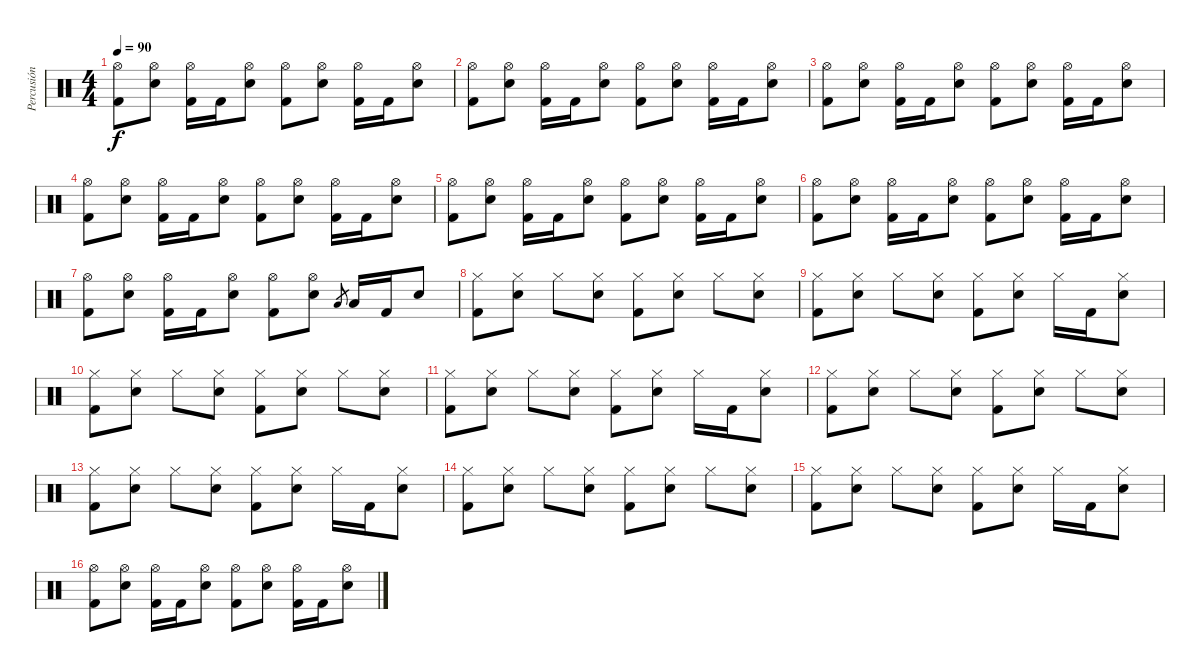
\track ("Percusión" "Percusión") {instrument percussion}
\staff {score}
\articulation defaults
\ts (4 4)
\tempo 90
\clef neutral
\ks c
("Hi-Hat (open)" "Kick (hit) 2").8{dy f} ("Hi-Hat (open)" "Snare (hit) 2").8 ("Hi-Hat (open)" "Kick (hit) 2").16 "Kick (hit) 2".16 ("Hi-Hat (open)" "Snare (hit) 2").8 ("Hi-Hat (open)" "Kick (hit) 2").8 ("Hi-Hat (open)" "Snare (hit) 2").8 ("Hi-Hat (open)" "Kick (hit) 2").16 "Kick (hit) 2".16 ("Hi-Hat (open)" "Snare (hit) 2").8 |
("Hi-Hat (open)" "Kick (hit) 2").8 ("Hi-Hat (open)" "Snare (hit) 2").8 ("Hi-Hat (open)" "Kick (hit) 2").16 "Kick (hit) 2".16 ("Hi-Hat (open)" "Snare (hit) 2").8 ("Hi-Hat (open)" "Kick (hit) 2").8 ("Hi-Hat (open)" "Snare (hit) 2").8 ("Hi-Hat (open)" "Kick (hit) 2").16 "Kick (hit) 2".16 ("Hi-Hat (open)" "Snare (hit) 2").8 |
("Hi-Hat (open)" "Kick (hit) 2").8 ("Hi-Hat (open)" "Snare (hit) 2").8 ("Hi-Hat (open)" "Kick (hit) 2").16 "Kick (hit) 2".16 ("Hi-Hat (open)" "Snare (hit) 2").8 ("Hi-Hat (open)" "Kick (hit) 2").8 ("Hi-Hat (open)" "Snare (hit) 2").8 ("Hi-Hat (open)" "Kick (hit) 2").16 "Kick (hit) 2".16 ("Hi-Hat (open)" "Snare (hit) 2").8 |
("Hi-Hat (open)" "Kick (hit) 2").8 ("Hi-Hat (open)" "Snare (hit) 2").8 ("Hi-Hat (open)" "Kick (hit) 2").16 "Kick (hit) 2".16 ("Hi-Hat (open)" "Snare (hit) 2").8 ("Hi-Hat (open)" "Kick (hit) 2").8 ("Hi-Hat (open)" "Snare (hit) 2").8 ("Hi-Hat (open)" "Kick (hit) 2").16 "Kick (hit) 2".16 ("Hi-Hat (open)" "Snare (hit) 2").8 |
("Hi-Hat (open)" "Kick (hit) 2").8 ("Hi-Hat (open)" "Snare (hit) 2").8 ("Hi-Hat (open)" "Kick (hit) 2").16 "Kick (hit) 2".16 ("Hi-Hat (open)" "Snare (hit) 2").8 ("Hi-Hat (open)" "Kick (hit) 2").8 ("Hi-Hat (open)" "Snare (hit) 2").8 ("Hi-Hat (open)" "Kick (hit) 2").16 "Kick (hit) 2".16 ("Hi-Hat (open)" "Snare (hit) 2").8 |
("Hi-Hat (open)" "Kick (hit) 2").8 ("Hi-Hat (open)" "Snare (hit) 2").8 ("Hi-Hat (open)" "Kick (hit) 2").16 "Kick (hit) 2".16 ("Hi-Hat (open)" "Snare (hit) 2").8 ("Hi-Hat (open)" "Kick (hit) 2").8 ("Hi-Hat (open)" "Snare (hit) 2").8 ("Hi-Hat (open)" "Kick (hit) 2").16 "Kick (hit) 2".16 ("Hi-Hat (open)" "Snare (hit) 2").8 |
("Hi-Hat (open)" "Kick (hit) 2").8 ("Hi-Hat (open)" "Snare (hit) 2").8 ("Hi-Hat (open)" "Kick (hit) 2").16 "Kick (hit) 2".16 ("Hi-Hat (open)" "Snare (hit) 2").8 ("Hi-Hat (open)" "Kick (hit) 2").8 ("Hi-Hat (open)" "Snare (hit) 2").8 "Low Floor Tom (hit)".8{gr} "Low Floor Tom (hit)".16 "Kick (hit) 2".16 "Snare (hit) 2".8 |
("Hi-Hat (closed)" "Kick (hit) 2").8 ("Hi-Hat (closed)" "Snare (hit) 2").8 "Hi-Hat (closed)".8 ("Hi-Hat (closed)" "Snare (hit) 2").8 ("Hi-Hat (closed)" "Kick (hit) 2").8 ("Hi-Hat (closed)" "Snare (hit) 2").8 "Hi-Hat (closed)".8 ("Hi-Hat (closed)" "Snare (hit) 2").8 |
("Hi-Hat (closed)" "Kick (hit) 2").8 ("Hi-Hat (closed)" "Snare (hit) 2").8 "Hi-Hat (closed)".8 ("Hi-Hat (closed)" "Snare (hit) 2").8 ("Hi-Hat (closed)" "Kick (hit) 2").8 ("Hi-Hat (closed)" "Snare (hit) 2").8 "Hi-Hat (closed)".16 "Kick (hit) 2".16 ("Hi-Hat (closed)" "Snare (hit) 2").8 |
("Hi-Hat (closed)" "Kick (hit) 2").8 ("Hi-Hat (closed)" "Snare (hit) 2").8 "Hi-Hat (closed)".8 ("Hi-Hat (closed)" "Snare (hit) 2").8 ("Hi-Hat (closed)" "Kick (hit) 2").8 ("Hi-Hat (closed)" "Snare (hit) 2").8 "Hi-Hat (closed)".8 ("Hi-Hat (closed)" "Snare (hit) 2").8 |
("Hi-Hat (closed)" "Kick (hit) 2").8 ("Hi-Hat (closed)" "Snare (hit) 2").8 "Hi-Hat (closed)".8 ("Hi-Hat (closed)" "Snare (hit) 2").8 ("Hi-Hat (closed)" "Kick (hit) 2").8 ("Hi-Hat (closed)" "Snare (hit) 2").8 "Hi-Hat (closed)".16 "Kick (hit) 2".16 ("Hi-Hat (closed)" "Snare (hit) 2").8 |
("Hi-Hat (closed)" "Kick (hit) 2").8 ("Hi-Hat (closed)" "Snare (hit) 2").8 "Hi-Hat (closed)".8 ("Hi-Hat (closed)" "Snare (hit) 2").8 ("Hi-Hat (closed)" "Kick (hit) 2").8 ("Hi-Hat (closed)" "Snare (hit) 2").8 "Hi-Hat (closed)".8 ("Hi-Hat (closed)" "Snare (hit) 2").8 |
("Hi-Hat (closed)" "Kick (hit) 2").8 ("Hi-Hat (closed)" "Snare (hit) 2").8 "Hi-Hat (closed)".8 ("Hi-Hat (closed)" "Snare (hit) 2").8 ("Hi-Hat (closed)" "Kick (hit) 2").8 ("Hi-Hat (closed)" "Snare (hit) 2").8 "Hi-Hat (closed)".16 "Kick (hit) 2".16 ("Hi-Hat (closed)" "Snare (hit) 2").8 |
("Hi-Hat (closed)" "Kick (hit) 2").8 ("Hi-Hat (closed)" "Snare (hit) 2").8 "Hi-Hat (closed)".8 ("Hi-Hat (closed)" "Snare (hit) 2").8 ("Hi-Hat (closed)" "Kick (hit) 2").8 ("Hi-Hat (closed)" "Snare (hit) 2").8 "Hi-Hat (closed)".8 ("Hi-Hat (closed)" "Snare (hit) 2").8 |
("Hi-Hat (closed)" "Kick (hit) 2").8 ("Hi-Hat (closed)" "Snare (hit) 2").8 "Hi-Hat (closed)".8 ("Hi-Hat (closed)" "Snare (hit) 2").8 ("Hi-Hat (closed)" "Kick (hit) 2").8 ("Hi-Hat (closed)" "Snare (hit) 2").8 "Hi-Hat (closed)".16 "Kick (hit) 2".16 ("Hi-Hat (closed)" "Snare (hit) 2").8 |
("Hi-Hat (open)" "Kick (hit) 2").8 ("Hi-Hat (open)" "Snare (hit) 2").8 ("Hi-Hat (open)" "Kick (hit) 2").16 "Kick (hit) 2".16 ("Hi-Hat (open)" "Snare (hit) 2").8 ("Hi-Hat (open)" "Kick (hit) 2").8 ("Hi-Hat (open)" "Snare (hit) 2").8 ("Hi-Hat (open)" "Kick (hit) 2").16 "Kick (hit) 2".16 ("Hi-Hat (open)" "Snare (hit) 2").8
